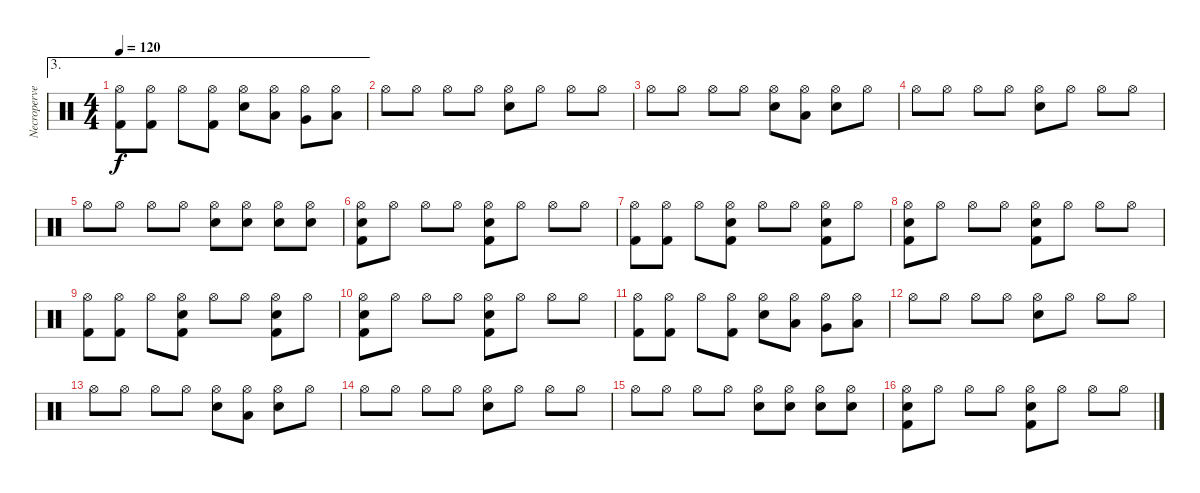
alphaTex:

\track ("Necroperversor" "Necroperve") {instrument percussion}
\staff {score}
\articulation defaults
\ae 3
\ts (4 4)
\tempo 120
\clef neutral
\ks c
("Hi-Hat (open)" "Kick (hit) 2").8{dy f} ("Hi-Hat (open)" "Kick (hit) 2").8 "Hi-Hat (open)".8 ("Hi-Hat (open)" "Kick (hit) 2").8 ("Hi-Hat (open)" "Electric Snare (hit)").8 ("Hi-Hat (open)" "Low Tom (hit)").8 ("Hi-Hat (open)" "Very Low Tom (hit)").8 ("Hi-Hat (open)" "Low Floor Tom (hit)").8 |
"Hi-Hat (open)".8 "Hi-Hat (open)".8 "Hi-Hat (open)".8 "Hi-Hat (open)".8 ("Hi-Hat (open)" "Electric Snare (hit)").8 "Hi-Hat (open)".8 "Hi-Hat (open)".8 "Hi-Hat (open)".8 |
"Hi-Hat (open)".8 "Hi-Hat (open)".8 "Hi-Hat (open)".8 "Hi-Hat (open)".8 ("Hi-Hat (open)" "Electric Snare (hit)").8 ("Hi-Hat (open)" "Low Tom (hit)").8 ("Hi-Hat (open)" "Electric Snare (hit)").8 "Hi-Hat (open)".8 |
"Hi-Hat (open)".8 "Hi-Hat (open)".8 "Hi-Hat (open)".8 "Hi-Hat (open)".8 ("Hi-Hat (open)" "Electric Snare (hit)").8 "Hi-Hat (open)".8 "Hi-Hat (open)".8 "Hi-Hat (open)".8 |
"Hi-Hat (open)".8 "Hi-Hat (open)".8 "Hi-Hat (open)".8 "Hi-Hat (open)".8 ("Hi-Hat (open)" "Electric Snare (hit)").8 ("Hi-Hat (open)" "Electric Snare (hit)").8 ("Hi-Hat (open)" "Electric Snare (hit)").8 ("Hi-Hat (open)" "Electric Snare (hit)").8 |
("Hi-Hat (open)" "Electric Snare (hit)" "Kick (hit) 2").8 "Hi-Hat (open)".8 "Hi-Hat (open)".8 "Hi-Hat (open)".8 ("Hi-Hat (open)" "Electric Snare (hit)" "Kick (hit) 2").8 "Hi-Hat (open)".8 "Hi-Hat (open)".8 "Hi-Hat (open)".8 |
("Hi-Hat (open)" "Kick (hit) 2").8 ("Hi-Hat (open)" "Kick (hit) 2").8 "Hi-Hat (open)".8 ("Hi-Hat (open)" "Electric Snare (hit)" "Kick (hit) 2").8 "Hi-Hat (open)".8 "Hi-Hat (open)".8 ("Hi-Hat (open)" "Electric Snare (hit)" "Kick (hit) 2").8 "Hi-Hat (open)".8 |
("Hi-Hat (open)" "Electric Snare (hit)" "Kick (hit) 2").8{volume 16} "Hi-Hat (open)".8 "Hi-Hat (open)".8 "Hi-Hat (open)".8 ("Hi-Hat (open)" "Electric Snare (hit)" "Kick (hit) 2").8{volume 10} "Hi-Hat (open)".8 "Hi-Hat (open)".8 "Hi-Hat (open)".8 |
("Hi-Hat (open)" "Kick (hit) 2").8 ("Hi-Hat (open)" "Kick (hit) 2").8 "Hi-Hat (open)".8 ("Hi-Hat (open)" "Electric Snare (hit)" "Kick (hit) 2").8 "Hi-Hat (open)".8 "Hi-Hat (open)".8 ("Hi-Hat (open)" "Electric Snare (hit)" "Kick (hit) 2").8 "Hi-Hat (open)".8 |
("Hi-Hat (open)" "Electric Snare (hit)" "Kick (hit) 2").8 "Hi-Hat (open)".8 "Hi-Hat (open)".8 "Hi-Hat (open)".8 ("Hi-Hat (open)" "Electric Snare (hit)" "Kick (hit) 2").8 "Hi-Hat (open)".8 "Hi-Hat (open)".8 "Hi-Hat (open)".8 |
("Hi-Hat (open)" "Kick (hit) 2").8 ("Hi-Hat (open)" "Kick (hit) 2").8 "Hi-Hat (open)".8 ("Hi-Hat (open)" "Kick (hit) 2").8 ("Hi-Hat (open)" "Electric Snare (hit)").8 ("Hi-Hat (open)" "Low Tom (hit)").8 ("Hi-Hat (open)" "Very Low Tom (hit)").8 ("Hi-Hat (open)" "Low Floor Tom (hit)").8 |
"Hi-Hat (open)".8{volume 10} "Hi-Hat (open)".8 "Hi-Hat (open)".8 "Hi-Hat (open)".8 ("Hi-Hat (open)" "Electric Snare (hit)").8{volume 4} "Hi-Hat (open)".8 "Hi-Hat (open)".8 "Hi-Hat (open)".8 |
"Hi-Hat (open)".8 "Hi-Hat (open)".8 "Hi-Hat (open)".8 "Hi-Hat (open)".8 ("Hi-Hat (open)" "Electric Snare (hit)").8 ("Hi-Hat (open)" "Low Tom (hit)").8 ("Hi-Hat (open)" "Electric Snare (hit)").8 "Hi-Hat (open)".8 |
"Hi-Hat (open)".8 "Hi-Hat (open)".8 "Hi-Hat (open)".8 "Hi-Hat (open)".8 ("Hi-Hat (open)" "Electric Snare (hit)").8 "Hi-Hat (open)".8 "Hi-Hat (open)".8 "Hi-Hat (open)".8 |
"Hi-Hat (open)".8 "Hi-Hat (open)".8 "Hi-Hat (open)".8 "Hi-Hat (open)".8 ("Hi-Hat (open)" "Electric Snare (hit)").8 ("Hi-Hat (open)" "Electric Snare (hit)").8 ("Hi-Hat (open)" "Electric Snare (hit)").8 ("Hi-Hat (open)" "Electric Snare (hit)").8 |
("Hi-Hat (open)" "Electric Snare (hit)" "Kick (hit) 2").8 "Hi-Hat (open)".8 "Hi-Hat (open)".8 "Hi-Hat (open)".8 ("Hi-Hat (open)" "Electric Snare (hit)" "Kick (hit) 2").8 "Hi-Hat (open)".8 "Hi-Hat (open)".8 "Hi-Hat (open)".8
